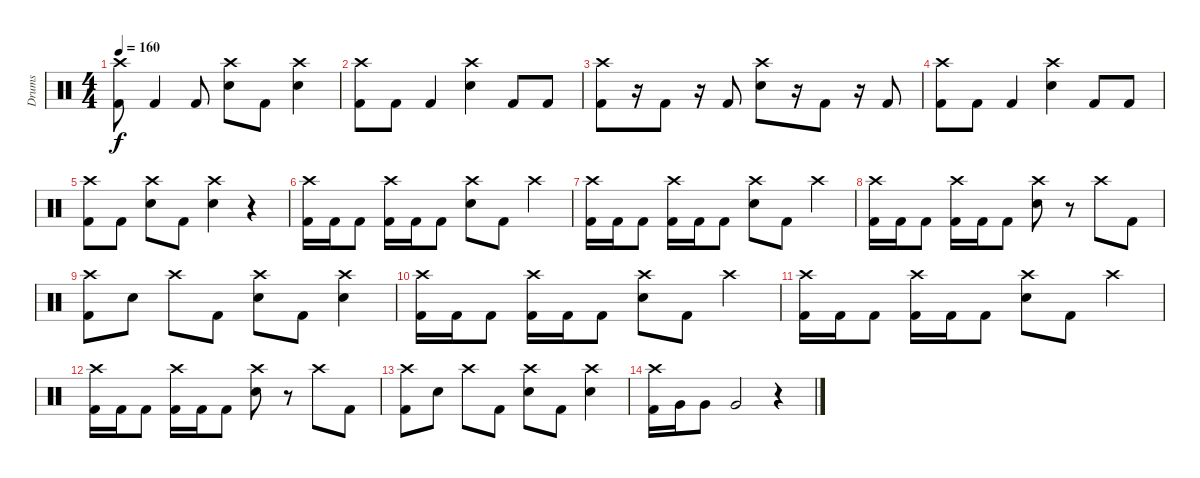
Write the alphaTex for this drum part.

\track ("Drums" "Drums") {instrument percussion}
\staff {score}
\articulation defaults
\ts (4 4)
\tempo 160
\clef neutral
\ks c
("Crash high (hit)" "Kick (hit) 2").8{dy f} "Kick (hit) 2".4 "Kick (hit) 2".8 ("Crash high (hit)" "Snare (hit) 2").8 "Kick (hit) 2".8 ("Crash high (hit)" "Snare (hit) 2").4 |
("Crash high (hit)" "Kick (hit) 2").8 "Kick (hit) 2".8 "Kick (hit) 2".4 ("Crash high (hit)" "Snare (hit) 2").4 "Kick (hit) 2".8 "Kick (hit) 2".8 |
("Crash high (hit)" "Kick (hit) 2").8 r.16 "Kick (hit) 2".8 r.16 "Kick (hit) 2".8 ("Crash high (hit)" "Snare (hit) 2").8 r.16 "Kick (hit) 2".8 r.16 "Kick (hit) 2".8 |
("Crash high (hit)" "Kick (hit) 2").8 "Kick (hit) 2".8 "Kick (hit) 2".4 ("Crash high (hit)" "Snare (hit) 2").4 "Kick (hit) 2".8 "Kick (hit) 2".8 |
("Crash high (hit)" "Kick (hit) 2").8 "Kick (hit) 2".8 ("Crash high (hit)" "Snare (hit) 2").8 "Kick (hit) 2".8 ("Crash high (hit)" "Snare (hit) 2").4 r.4 |
("Crash high (hit)" "Kick (hit) 2").16 "Kick (hit) 2".16 "Kick (hit) 2".8 ("Crash high (hit)" "Kick (hit) 2").16 "Kick (hit) 2".16 "Kick (hit) 2".8 ("Crash high (hit)" "Snare (hit) 2").8 "Kick (hit) 2".8 "Crash high (hit)".4 |
("Crash high (hit)" "Kick (hit) 2").16 "Kick (hit) 2".16 "Kick (hit) 2".8 ("Crash high (hit)" "Kick (hit) 2").16 "Kick (hit) 2".16 "Kick (hit) 2".8 ("Crash high (hit)" "Snare (hit) 2").8 "Kick (hit) 2".8 "Crash high (hit)".4 |
("Crash high (hit)" "Kick (hit) 2").16 "Kick (hit) 2".16 "Kick (hit) 2".8 ("Crash high (hit)" "Kick (hit) 2").16 "Kick (hit) 2".16 "Kick (hit) 2".8 ("Crash high (hit)" "Snare (hit) 2").8 r.8 "Crash high (hit)".8 "Kick (hit) 2".8 |
("Crash high (hit)" "Kick (hit) 2").8 "Snare (hit) 2".8 "Crash high (hit)".8 "Kick (hit) 2".8 ("Crash high (hit)" "Snare (hit) 2").8 "Kick (hit) 2".8 ("Crash high (hit)" "Snare (hit) 2").4 |
("Crash high (hit)" "Kick (hit) 2").16 "Kick (hit) 2".16 "Kick (hit) 2".8 ("Crash high (hit)" "Kick (hit) 2").16 "Kick (hit) 2".16 "Kick (hit) 2".8 ("Crash high (hit)" "Snare (hit) 2").8 "Kick (hit) 2".8 "Crash high (hit)".4 |
("Crash high (hit)" "Kick (hit) 2").16 "Kick (hit) 2".16 "Kick (hit) 2".8 ("Crash high (hit)" "Kick (hit) 2").16 "Kick (hit) 2".16 "Kick (hit) 2".8 ("Crash high (hit)" "Snare (hit) 2").8 "Kick (hit) 2".8 "Crash high (hit)".4 |
("Crash high (hit)" "Kick (hit) 2").16 "Kick (hit) 2".16 "Kick (hit) 2".8 ("Crash high (hit)" "Kick (hit) 2").16 "Kick (hit) 2".16 "Kick (hit) 2".8 ("Crash high (hit)" "Snare (hit) 2").8 r.8 "Crash high (hit)".8 "Kick (hit) 2".8 |
("Crash high (hit)" "Kick (hit) 2").8 "Snare (hit) 2".8 "Crash high (hit)".8 "Kick (hit) 2".8 ("Crash high (hit)" "Snare (hit) 2").8 "Kick (hit) 2".8 ("Crash high (hit)" "Snare (hit) 2").4 |
("Crash high (hit)" "Kick (hit) 2").16 "Very Low Tom (hit)".16 "Very Low Tom (hit)".8 "Very Low Tom (hit)".2 r.4
